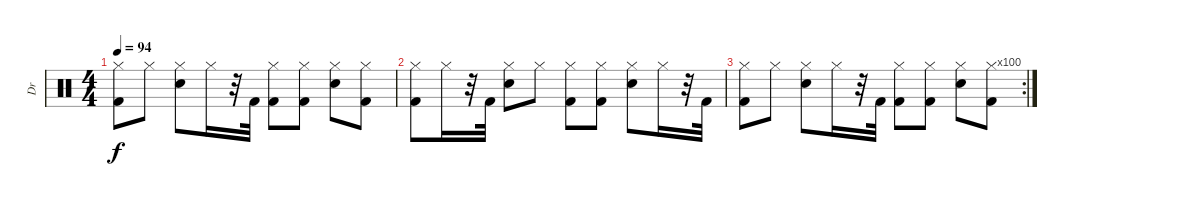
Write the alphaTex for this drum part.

\track ("Dr" "Dr") {instrument percussion}
\staff {score}
\articulation defaults
\ts (4 4)
\tempo 94
\clef neutral
\ks c
("Hi-Hat (closed)" "Kick (hit) 2").8{dy f} "Hi-Hat (closed)".8 ("Hi-Hat (closed)" "Electric Snare (hit)").8 "Hi-Hat (closed)".16 r.32 "Kick (hit) 2".32 ("Hi-Hat (closed)" "Kick (hit) 2").8 ("Hi-Hat (closed)" "Kick (hit) 2").8 ("Hi-Hat (closed)" "Electric Snare (hit)").8 ("Hi-Hat (closed)" "Kick (hit) 2").8 |
("Hi-Hat (closed)" "Kick (hit) 2").8 "Hi-Hat (closed)".16 r.32 "Kick (hit) 2".32 ("Hi-Hat (closed)" "Electric Snare (hit)").8 "Hi-Hat (closed)".8 ("Hi-Hat (closed)" "Kick (hit) 2").8 ("Hi-Hat (closed)" "Kick (hit) 2").8 ("Hi-Hat (closed)" "Electric Snare (hit)").8 "Hi-Hat (closed)".16 r.32 "Kick (hit) 2".32 |
\rc 100
("Hi-Hat (closed)" "Kick (hit) 2").8 "Hi-Hat (closed)".8 ("Hi-Hat (closed)" "Electric Snare (hit)").8 "Hi-Hat (closed)".16 r.32 "Kick (hit) 2".32 ("Hi-Hat (closed)" "Kick (hit) 2").8 ("Hi-Hat (closed)" "Kick (hit) 2").8 ("Hi-Hat (closed)" "Electric Snare (hit)").8 ("Hi-Hat (closed)" "Kick (hit) 2").8
